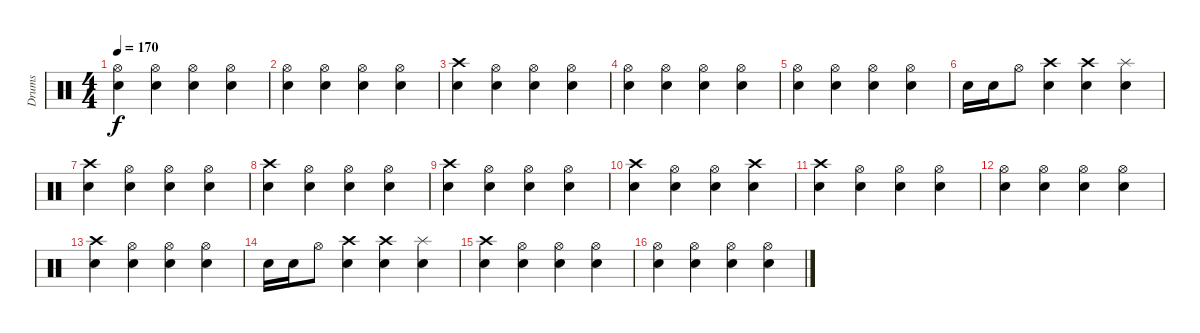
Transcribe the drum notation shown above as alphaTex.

\track ("Drums" "Drums") {instrument percussion}
\staff {score}
\articulation defaults
\ts (4 4)
\tempo 170
\clef neutral
\ks c
("Hi-Hat (open)" "Snare (hit) 2").4{dy f} ("Hi-Hat (open)" "Snare (hit) 2").4 ("Hi-Hat (open)" "Snare (hit) 2").4 ("Hi-Hat (open)" "Snare (hit) 2").4 |
("Hi-Hat (open)" "Snare (hit) 2").4 ("Hi-Hat (open)" "Snare (hit) 2").4 ("Hi-Hat (open)" "Snare (hit) 2").4 ("Hi-Hat (open)" "Snare (hit) 2").4 |
("Crash high (hit)" "Snare (hit) 2").4 ("Hi-Hat (open)" "Snare (hit) 2").4 ("Hi-Hat (open)" "Snare (hit) 2").4 ("Hi-Hat (open)" "Snare (hit) 2").4 |
("Hi-Hat (open)" "Snare (hit) 2").4 ("Hi-Hat (open)" "Snare (hit) 2").4 ("Hi-Hat (open)" "Snare (hit) 2").4 ("Hi-Hat (open)" "Snare (hit) 2").4 |
("Hi-Hat (open)" "Snare (hit) 2").4 ("Hi-Hat (open)" "Snare (hit) 2").4 ("Hi-Hat (open)" "Snare (hit) 2").4 ("Hi-Hat (open)" "Snare (hit) 2").4 |
"Snare (hit) 2".16 "Snare (hit) 2".16 "Hi-Hat (open)".8 ("Crash high (hit)" "Snare (hit) 2").4 ("Crash high (hit)" "Snare (hit) 2").4 ("Splash (hit)" "Snare (hit) 2").4 |
("Crash high (hit)" "Snare (hit) 2").4 ("Hi-Hat (open)" "Snare (hit) 2").4 ("Hi-Hat (open)" "Snare (hit) 2").4 ("Hi-Hat (open)" "Snare (hit) 2").4 |
("Crash high (hit)" "Snare (hit) 2").4 ("Hi-Hat (open)" "Snare (hit) 2").4 ("Hi-Hat (open)" "Snare (hit) 2").4 ("Hi-Hat (open)" "Snare (hit) 2").4 |
("Crash high (hit)" "Snare (hit) 2").4 ("Hi-Hat (open)" "Snare (hit) 2").4 ("Hi-Hat (open)" "Snare (hit) 2").4 ("Hi-Hat (open)" "Snare (hit) 2").4 |
("Crash high (hit)" "Snare (hit) 2").4 ("Hi-Hat (open)" "Snare (hit) 2").4 ("Hi-Hat (open)" "Snare (hit) 2").4 ("Crash high (hit)" "Snare (hit) 2").4 |
("Crash high (hit)" "Snare (hit) 2").4 ("Hi-Hat (open)" "Snare (hit) 2").4 ("Hi-Hat (open)" "Snare (hit) 2").4 ("Hi-Hat (open)" "Snare (hit) 2").4 |
("Hi-Hat (open)" "Snare (hit) 2").4 ("Hi-Hat (open)" "Snare (hit) 2").4 ("Hi-Hat (open)" "Snare (hit) 2").4 ("Hi-Hat (open)" "Snare (hit) 2").4 |
("Crash high (hit)" "Snare (hit) 2").4 ("Hi-Hat (open)" "Snare (hit) 2").4 ("Hi-Hat (open)" "Snare (hit) 2").4 ("Hi-Hat (open)" "Snare (hit) 2").4 |
"Snare (hit) 2".16 "Snare (hit) 2".16 "Hi-Hat (open)".8 ("Crash high (hit)" "Snare (hit) 2").4 ("Crash high (hit)" "Snare (hit) 2").4 ("Splash (hit)" "Snare (hit) 2").4 |
("Crash high (hit)" "Snare (hit) 2").4 ("Hi-Hat (open)" "Snare (hit) 2").4 ("Hi-Hat (open)" "Snare (hit) 2").4 ("Hi-Hat (open)" "Snare (hit) 2").4 |
("Hi-Hat (open)" "Snare (hit) 2").4 ("Hi-Hat (open)" "Snare (hit) 2").4 ("Hi-Hat (open)" "Snare (hit) 2").4 ("Hi-Hat (open)" "Snare (hit) 2").4
